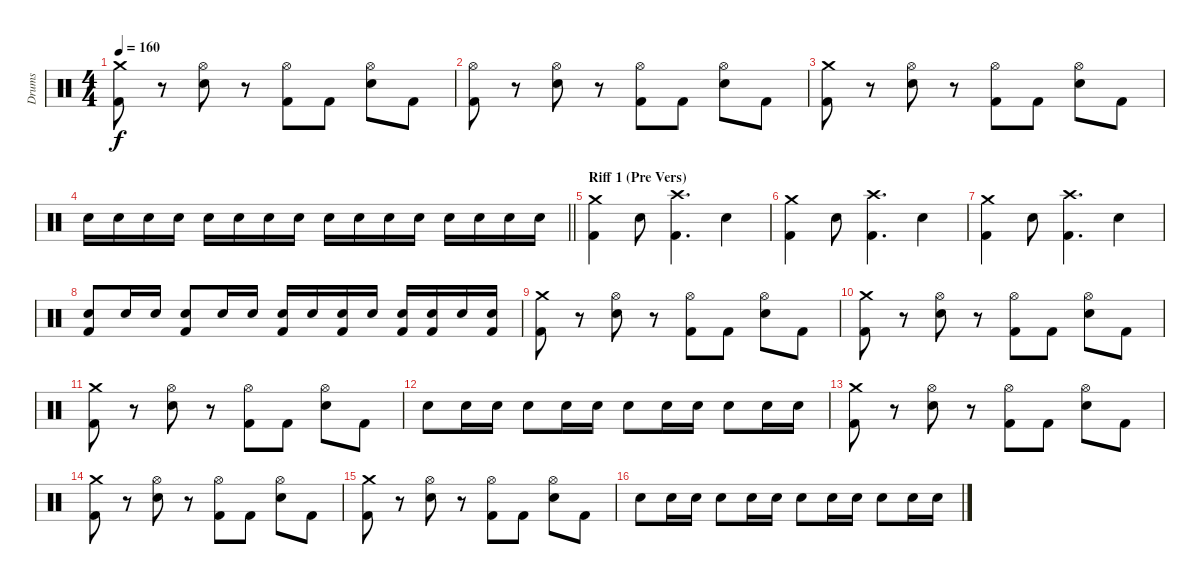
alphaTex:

\track ("Drums" "Drums") {instrument percussion}
\staff {score}
\articulation defaults
\ts (4 4)
\tempo 160
\clef neutral
\ks c
("Crash medium (hit)" "Kick (hit) 2").8{dy f} r.8 ("Hi-Hat (open)" "Snare (hit) 2").8 r.8 ("Hi-Hat (open)" "Kick (hit) 2").8 "Kick (hit) 2".8 ("Hi-Hat (open)" "Snare (hit) 2").8 "Kick (hit) 2".8 |
("Hi-Hat (open)" "Kick (hit) 2").8 r.8 ("Hi-Hat (open)" "Snare (hit) 2").8 r.8 ("Hi-Hat (open)" "Kick (hit) 2").8 "Kick (hit) 2".8 ("Hi-Hat (open)" "Snare (hit) 2").8 "Kick (hit) 2".8 |
("Crash medium (hit)" "Kick (hit) 2").8 r.8 ("Hi-Hat (open)" "Snare (hit) 2").8 r.8 ("Hi-Hat (open)" "Kick (hit) 2").8 "Kick (hit) 2".8 ("Hi-Hat (open)" "Snare (hit) 2").8 "Kick (hit) 2".8 |
\barLineRight lightlight "Snare (hit) 2".16 "Snare (hit) 2".16 "Snare (hit) 2".16 "Snare (hit) 2".16 "Snare (hit) 2".16 "Snare (hit) 2".16 "Snare (hit) 2".16 "Snare (hit) 2".16 "Snare (hit) 2".16 "Snare (hit) 2".16 "Snare (hit) 2".16 "Snare (hit) 2".16 "Snare (hit) 2".16 "Snare (hit) 2".16 "Snare (hit) 2".16 "Snare (hit) 2".16
|
\section ("" "Riff 1 (Pre Vers)")
("Crash medium (hit)" "Kick (hit) 2").4 "Snare (hit) 2".8 ("Crash high (hit)" "Kick (hit) 2").4{d} "Snare (hit) 2".4 |
("Crash medium (hit)" "Kick (hit) 2").4 "Snare (hit) 2".8 ("Crash high (hit)" "Kick (hit) 2").4{d} "Snare (hit) 2".4 |
("Crash medium (hit)" "Kick (hit) 2").4 "Snare (hit) 2".8 ("Crash high (hit)" "Kick (hit) 2").4{d} "Snare (hit) 2".4 |
("Snare (hit) 2" "Kick (hit) 2").8 "Snare (hit) 2".16 "Snare (hit) 2".16 ("Snare (hit) 2" "Kick (hit) 2").8 "Snare (hit) 2".16 "Snare (hit) 2".16 ("Snare (hit) 2" "Kick (hit) 2").16 "Snare (hit) 2".16 ("Snare (hit) 2" "Kick (hit) 2").16 "Snare (hit) 2".16 ("Snare (hit) 2" "Kick (hit) 2").16 ("Snare (hit) 2" "Kick (hit) 2").16 "Snare (hit) 2".16 ("Snare (hit) 2" "Kick (hit) 2").16 |
("Crash medium (hit)" "Kick (hit) 2").8 r.8 ("Hi-Hat (open)" "Snare (hit) 2").8 r.8 ("Hi-Hat (open)" "Kick (hit) 2").8 "Kick (hit) 2".8 ("Hi-Hat (open)" "Snare (hit) 2").8 "Kick (hit) 2".8 |
("Crash medium (hit)" "Kick (hit) 2").8 r.8 ("Hi-Hat (open)" "Snare (hit) 2").8 r.8 ("Hi-Hat (open)" "Kick (hit) 2").8 "Kick (hit) 2".8 ("Hi-Hat (open)" "Snare (hit) 2").8 "Kick (hit) 2".8 |
("Crash medium (hit)" "Kick (hit) 2").8 r.8 ("Hi-Hat (open)" "Snare (hit) 2").8 r.8 ("Hi-Hat (open)" "Kick (hit) 2").8 "Kick (hit) 2".8 ("Hi-Hat (open)" "Snare (hit) 2").8 "Kick (hit) 2".8 |
"Snare (hit) 2".8 "Snare (hit) 2".16 "Snare (hit) 2".16 "Snare (hit) 2".8 "Snare (hit) 2".16 "Snare (hit) 2".16 "Snare (hit) 2".8 "Snare (hit) 2".16 "Snare (hit) 2".16 "Snare (hit) 2".8 "Snare (hit) 2".16 "Snare (hit) 2".16 |
("Crash medium (hit)" "Kick (hit) 2").8 r.8 ("Hi-Hat (open)" "Snare (hit) 2").8 r.8 ("Hi-Hat (open)" "Kick (hit) 2").8 "Kick (hit) 2".8 ("Hi-Hat (open)" "Snare (hit) 2").8 "Kick (hit) 2".8 |
("Crash medium (hit)" "Kick (hit) 2").8 r.8 ("Hi-Hat (open)" "Snare (hit) 2").8 r.8 ("Hi-Hat (open)" "Kick (hit) 2").8 "Kick (hit) 2".8 ("Hi-Hat (open)" "Snare (hit) 2").8 "Kick (hit) 2".8 |
("Crash medium (hit)" "Kick (hit) 2").8 r.8 ("Hi-Hat (open)" "Snare (hit) 2").8 r.8 ("Hi-Hat (open)" "Kick (hit) 2").8 "Kick (hit) 2".8 ("Hi-Hat (open)" "Snare (hit) 2").8 "Kick (hit) 2".8 |
"Snare (hit) 2".8 "Snare (hit) 2".16 "Snare (hit) 2".16 "Snare (hit) 2".8 "Snare (hit) 2".16 "Snare (hit) 2".16 "Snare (hit) 2".8 "Snare (hit) 2".16 "Snare (hit) 2".16 "Snare (hit) 2".8 "Snare (hit) 2".16 "Snare (hit) 2".16
